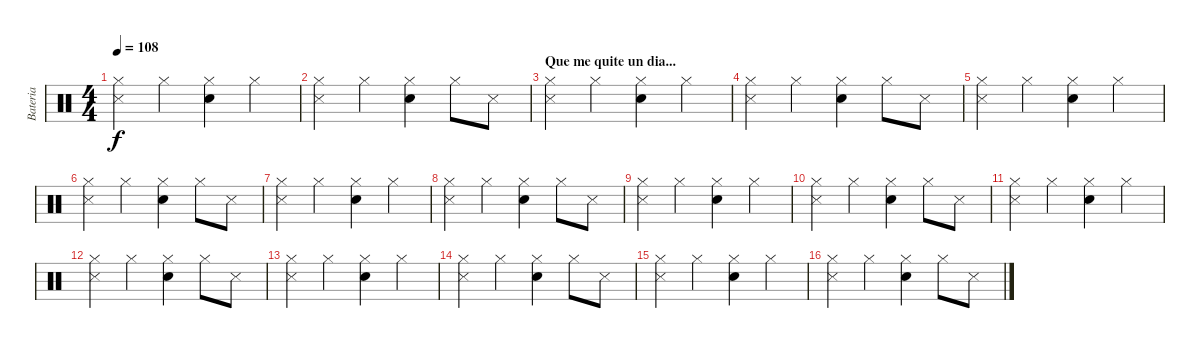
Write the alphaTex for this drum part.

\track ("Bateria" "Bateria") {instrument percussion}
\staff {score}
\articulation defaults
\ts (4 4)
\tempo 108
\clef neutral
\ks c
("Hi-Hat (closed)" "Snare (side stick) 3").4{dy f} "Hi-Hat (closed)".4 ("Snare (hit) 2" "Hi-Hat (closed)").4 "Hi-Hat (closed)".4 |
("Hi-Hat (closed)" "Snare (side stick) 3").4 "Hi-Hat (closed)".4 ("Snare (hit) 2" "Hi-Hat (closed)").4 "Hi-Hat (closed)".8 "Snare (side stick) 3".8 |
\section ("" "Que me quite un dia...")
("Hi-Hat (closed)" "Snare (side stick) 3").4 "Hi-Hat (closed)".4 ("Snare (hit) 2" "Hi-Hat (closed)").4 "Hi-Hat (closed)".4 |
("Hi-Hat (closed)" "Snare (side stick) 3").4 "Hi-Hat (closed)".4 ("Snare (hit) 2" "Hi-Hat (closed)").4 "Hi-Hat (closed)".8 "Snare (side stick) 3".8 |
("Hi-Hat (closed)" "Snare (side stick) 3").4 "Hi-Hat (closed)".4 ("Snare (hit) 2" "Hi-Hat (closed)").4 "Hi-Hat (closed)".4 |
("Hi-Hat (closed)" "Snare (side stick) 3").4 "Hi-Hat (closed)".4 ("Snare (hit) 2" "Hi-Hat (closed)").4 "Hi-Hat (closed)".8 "Snare (side stick) 3".8 |
("Hi-Hat (closed)" "Snare (side stick) 3").4 "Hi-Hat (closed)".4 ("Snare (hit) 2" "Hi-Hat (closed)").4 "Hi-Hat (closed)".4 |
("Hi-Hat (closed)" "Snare (side stick) 3").4 "Hi-Hat (closed)".4 ("Snare (hit) 2" "Hi-Hat (closed)").4 "Hi-Hat (closed)".8 "Snare (side stick) 3".8 |
("Hi-Hat (closed)" "Snare (side stick) 3").4 "Hi-Hat (closed)".4 ("Snare (hit) 2" "Hi-Hat (closed)").4 "Hi-Hat (closed)".4 |
("Hi-Hat (closed)" "Snare (side stick) 3").4 "Hi-Hat (closed)".4 ("Snare (hit) 2" "Hi-Hat (closed)").4 "Hi-Hat (closed)".8 "Snare (side stick) 3".8 |
("Hi-Hat (closed)" "Snare (side stick) 3").4 "Hi-Hat (closed)".4 ("Snare (hit) 2" "Hi-Hat (closed)").4 "Hi-Hat (closed)".4 |
("Hi-Hat (closed)" "Snare (side stick) 3").4 "Hi-Hat (closed)".4 ("Snare (hit) 2" "Hi-Hat (closed)").4 "Hi-Hat (closed)".8 "Snare (side stick) 3".8 |
("Hi-Hat (closed)" "Snare (side stick) 3").4 "Hi-Hat (closed)".4 ("Snare (hit) 2" "Hi-Hat (closed)").4 "Hi-Hat (closed)".4 |
("Hi-Hat (closed)" "Snare (side stick) 3").4 "Hi-Hat (closed)".4 ("Snare (hit) 2" "Hi-Hat (closed)").4 "Hi-Hat (closed)".8 "Snare (side stick) 3".8 |
("Hi-Hat (closed)" "Snare (side stick) 3").4 "Hi-Hat (closed)".4 ("Snare (hit) 2" "Hi-Hat (closed)").4 "Hi-Hat (closed)".4 |
("Hi-Hat (closed)" "Snare (side stick) 3").4 "Hi-Hat (closed)".4 ("Snare (hit) 2" "Hi-Hat (closed)").4 "Hi-Hat (closed)".8 "Snare (side stick) 3".8
